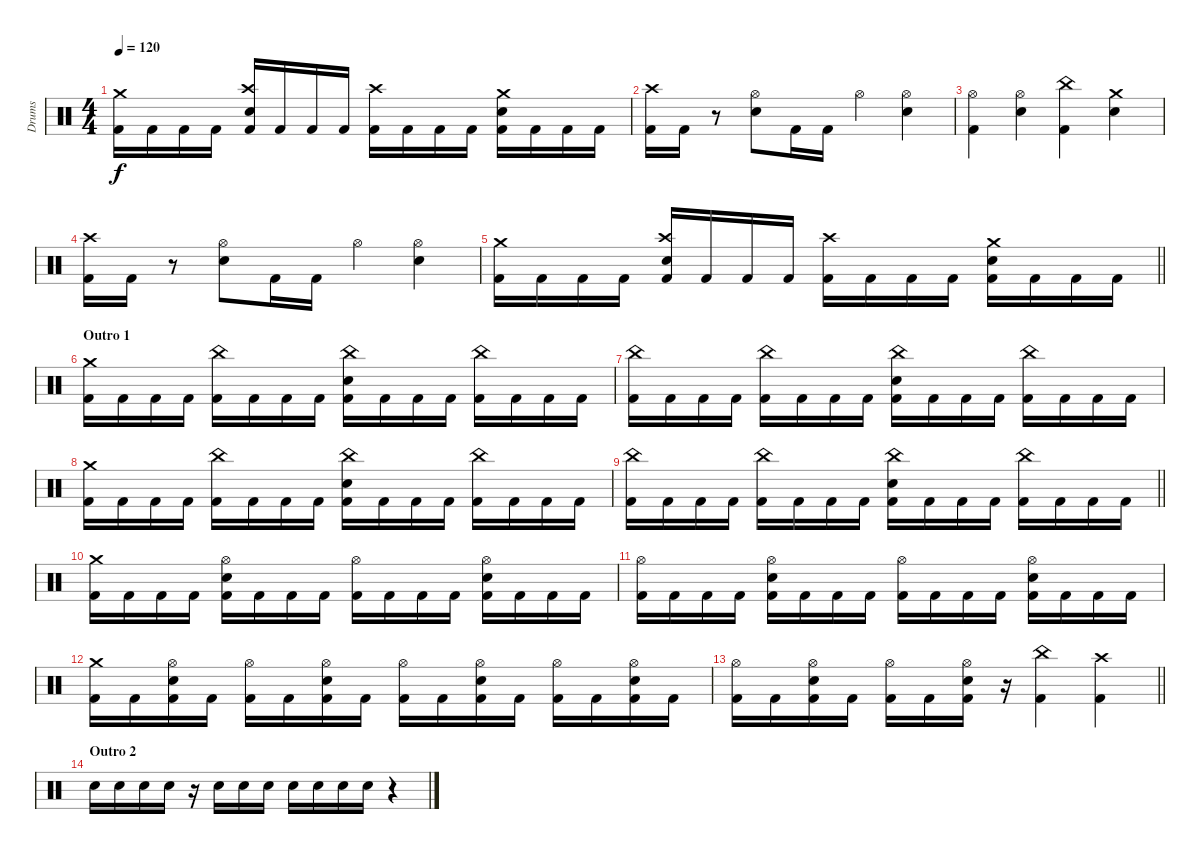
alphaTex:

\track ("Drums" "Drums") {instrument percussion}
\staff {score}
\articulation defaults
\ts (4 4)
\tempo 120
\clef neutral
\ks c
("Crash medium (hit)" "Kick (hit) 2").16{dy f} "Kick (hit) 2".16 "Kick (hit) 2".16 "Kick (hit) 2".16 ("Crash high (hit)" "Electric Snare (hit)" "Kick (hit) 2").16 "Kick (hit) 2".16 "Kick (hit) 2".16 "Kick (hit) 2".16 ("Crash high (hit)" "Kick (hit) 2").16 "Kick (hit) 2".16 "Kick (hit) 2".16 "Kick (hit) 2".16 ("Crash medium (hit)" "Electric Snare (hit)" "Kick (hit) 2").16 "Kick (hit) 2".16 "Kick (hit) 2".16 "Kick (hit) 2".16 |
("Crash high (hit)" "Kick (hit) 2").16 "Kick (hit) 2".16 r.8 ("Hi-Hat (open)" "Electric Snare (hit)").8 "Kick (hit) 2".16 "Kick (hit) 2".16 "Hi-Hat (open)".4 ("Hi-Hat (open)" "Electric Snare (hit)").4 |
("Hi-Hat (open)" "Kick (hit) 2").4 ("Hi-Hat (open)" "Electric Snare (hit)").4 ("China (hit)" "Kick (hit) 2").4 ("Crash medium (hit)" "Electric Snare (hit)").4 |
("Crash high (hit)" "Kick (hit) 2").16 "Kick (hit) 2".16 r.8 ("Hi-Hat (open)" "Electric Snare (hit)").8 "Kick (hit) 2".16 "Kick (hit) 2".16 "Hi-Hat (open)".4 ("Hi-Hat (open)" "Electric Snare (hit)").4 |
\barLineRight lightlight
("Crash medium (hit)" "Kick (hit) 2").16 "Kick (hit) 2".16 "Kick (hit) 2".16 "Kick (hit) 2".16 ("Crash high (hit)" "Electric Snare (hit)" "Kick (hit) 2").16 "Kick (hit) 2".16 "Kick (hit) 2".16 "Kick (hit) 2".16 ("Crash high (hit)" "Kick (hit) 2").16 "Kick (hit) 2".16 "Kick (hit) 2".16 "Kick (hit) 2".16 ("Crash medium (hit)" "Electric Snare (hit)" "Kick (hit) 2").16 "Kick (hit) 2".16 "Kick (hit) 2".16 "Kick (hit) 2".16 |
\section ("" "Outro 1")
("Crash medium (hit)" "Kick (hit) 2").16 "Kick (hit) 2".16 "Kick (hit) 2".16 "Kick (hit) 2".16 ("China (hit)" "Kick (hit) 2").16 "Kick (hit) 2".16 "Kick (hit) 2".16 "Kick (hit) 2".16 ("China (hit)" "Electric Snare (hit)" "Kick (hit) 2").16 "Kick (hit) 2".16 "Kick (hit) 2".16 "Kick (hit) 2".16 ("China (hit)" "Kick (hit) 2").16 "Kick (hit) 2".16 "Kick (hit) 2".16 "Kick (hit) 2".16 |
("China (hit)" "Kick (hit) 2").16 "Kick (hit) 2".16 "Kick (hit) 2".16 "Kick (hit) 2".16 ("China (hit)" "Kick (hit) 2").16 "Kick (hit) 2".16 "Kick (hit) 2".16 "Kick (hit) 2".16 ("China (hit)" "Electric Snare (hit)" "Kick (hit) 2").16 "Kick (hit) 2".16 "Kick (hit) 2".16 "Kick (hit) 2".16 ("China (hit)" "Kick (hit) 2").16 "Kick (hit) 2".16 "Kick (hit) 2".16 "Kick (hit) 2".16 |
("Crash medium (hit)" "Kick (hit) 2").16 "Kick (hit) 2".16 "Kick (hit) 2".16 "Kick (hit) 2".16 ("China (hit)" "Kick (hit) 2").16 "Kick (hit) 2".16 "Kick (hit) 2".16 "Kick (hit) 2".16 ("China (hit)" "Electric Snare (hit)" "Kick (hit) 2").16 "Kick (hit) 2".16 "Kick (hit) 2".16 "Kick (hit) 2".16 ("China (hit)" "Kick (hit) 2").16 "Kick (hit) 2".16 "Kick (hit) 2".16 "Kick (hit) 2".16 |
\barLineRight lightlight
("China (hit)" "Kick (hit) 2").16 "Kick (hit) 2".16 "Kick (hit) 2".16 "Kick (hit) 2".16 ("China (hit)" "Kick (hit) 2").16 "Kick (hit) 2".16 "Kick (hit) 2".16 "Kick (hit) 2".16 ("China (hit)" "Electric Snare (hit)" "Kick (hit) 2").16 "Kick (hit) 2".16 "Kick (hit) 2".16 "Kick (hit) 2".16 ("China (hit)" "Kick (hit) 2").16 "Kick (hit) 2".16 "Kick (hit) 2".16 "Kick (hit) 2".16 |
\section ("" "")
("Crash medium (hit)" "Kick (hit) 2").16 "Kick (hit) 2".16 "Kick (hit) 2".16 "Kick (hit) 2".16 ("Hi-Hat (open)" "Electric Snare (hit)" "Kick (hit) 2").16 "Kick (hit) 2".16 "Kick (hit) 2".16 "Kick (hit) 2".16 ("Hi-Hat (open)" "Kick (hit) 2").16 "Kick (hit) 2".16 "Kick (hit) 2".16 "Kick (hit) 2".16 ("Hi-Hat (open)" "Electric Snare (hit)" "Kick (hit) 2").16 "Kick (hit) 2".16 "Kick (hit) 2".16 "Kick (hit) 2".16 |
("Hi-Hat (open)" "Kick (hit) 2").16 "Kick (hit) 2".16 "Kick (hit) 2".16 "Kick (hit) 2".16 ("Hi-Hat (open)" "Electric Snare (hit)" "Kick (hit) 2").16 "Kick (hit) 2".16 "Kick (hit) 2".16 "Kick (hit) 2".16 ("Hi-Hat (open)" "Kick (hit) 2").16 "Kick (hit) 2".16 "Kick (hit) 2".16 "Kick (hit) 2".16 ("Hi-Hat (open)" "Electric Snare (hit)" "Kick (hit) 2").16 "Kick (hit) 2".16 "Kick (hit) 2".16 "Kick (hit) 2".16 |
("Crash medium (hit)" "Kick (hit) 2").16 "Kick (hit) 2".16 ("Hi-Hat (open)" "Electric Snare (hit)" "Kick (hit) 2").16 "Kick (hit) 2".16 ("Hi-Hat (open)" "Kick (hit) 2").16 "Kick (hit) 2".16 ("Hi-Hat (open)" "Electric Snare (hit)" "Kick (hit) 2").16 "Kick (hit) 2".16 ("Hi-Hat (open)" "Kick (hit) 2").16 "Kick (hit) 2".16 ("Hi-Hat (open)" "Electric Snare (hit)" "Kick (hit) 2").16 "Kick (hit) 2".16 ("Hi-Hat (open)" "Kick (hit) 2").16 "Kick (hit) 2".16 ("Hi-Hat (open)" "Electric Snare (hit)" "Kick (hit) 2").16 "Kick (hit) 2".16 |
\barLineRight lightlight
("Hi-Hat (open)" "Kick (hit) 2").16 "Kick (hit) 2".16 ("Hi-Hat (open)" "Electric Snare (hit)" "Kick (hit) 2").16 "Kick (hit) 2".16 ("Hi-Hat (open)" "Kick (hit) 2").16 "Kick (hit) 2".16 ("Hi-Hat (open)" "Electric Snare (hit)" "Kick (hit) 2").16 r.16 ("China (hit)" "Kick (hit) 2").4 ("Crash high (hit)" "Kick (hit) 2").4 |
\section ("" "Outro 2")
"Electric Snare (hit)".16{volume 16} "Electric Snare (hit)".16 "Electric Snare (hit)".16 "Electric Snare (hit)".16 r.16 "Electric Snare (hit)".16 "Electric Snare (hit)".16 "Electric Snare (hit)".16 "Electric Snare (hit)".16 "Electric Snare (hit)".16 "Electric Snare (hit)".16 "Electric Snare (hit)".16 r.4
